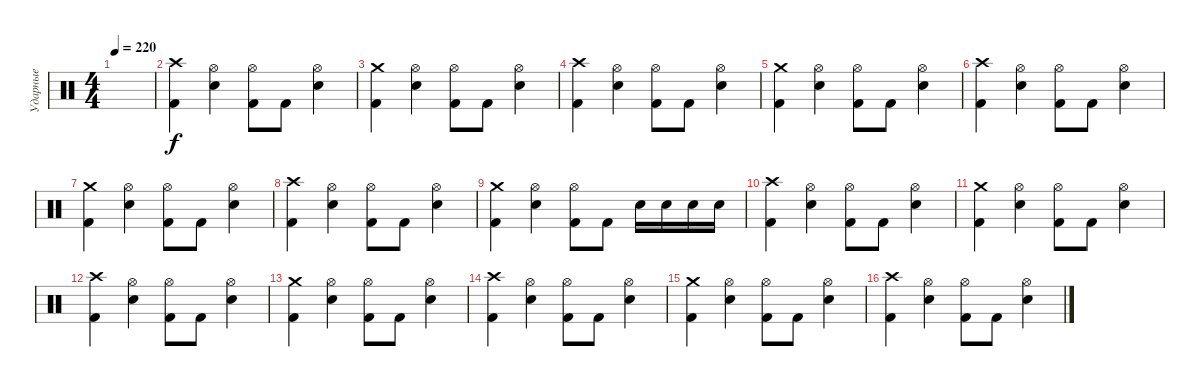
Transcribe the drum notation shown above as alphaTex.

\track ("Ударные" "Ударные") {instrument percussion}
\staff {score}
\articulation defaults
\ts (4 4)
\tempo 220
\clef neutral
\ks c
|
("Crash high (hit)" "Kick (hit) 2").4 ("Hi-Hat (open)" "Electric Snare (hit)").4 ("Hi-Hat (open)" "Kick (hit) 2").8 "Kick (hit) 2".8 ("Hi-Hat (open)" "Electric Snare (hit)").4 |
("Crash medium (hit)" "Kick (hit) 2").4 ("Hi-Hat (open)" "Electric Snare (hit)").4 ("Hi-Hat (open)" "Kick (hit) 2").8 "Kick (hit) 2".8 ("Hi-Hat (open)" "Electric Snare (hit)").4 |
("Crash high (hit)" "Kick (hit) 2").4 ("Hi-Hat (open)" "Electric Snare (hit)").4 ("Hi-Hat (open)" "Kick (hit) 2").8 "Kick (hit) 2".8 ("Hi-Hat (open)" "Electric Snare (hit)").4 |
("Crash medium (hit)" "Kick (hit) 2").4 ("Hi-Hat (open)" "Electric Snare (hit)").4 ("Hi-Hat (open)" "Kick (hit) 2").8 "Kick (hit) 2".8 ("Hi-Hat (open)" "Electric Snare (hit)").4 |
("Crash high (hit)" "Kick (hit) 2").4 ("Hi-Hat (open)" "Electric Snare (hit)").4 ("Hi-Hat (open)" "Kick (hit) 2").8 "Kick (hit) 2".8 ("Hi-Hat (open)" "Electric Snare (hit)").4 |
("Crash medium (hit)" "Kick (hit) 2").4 ("Hi-Hat (open)" "Electric Snare (hit)").4 ("Hi-Hat (open)" "Kick (hit) 2").8 "Kick (hit) 2".8 ("Hi-Hat (open)" "Electric Snare (hit)").4 |
("Crash high (hit)" "Kick (hit) 2").4 ("Hi-Hat (open)" "Electric Snare (hit)").4 ("Hi-Hat (open)" "Kick (hit) 2").8 "Kick (hit) 2".8 ("Hi-Hat (open)" "Electric Snare (hit)").4 |
("Crash medium (hit)" "Kick (hit) 2").4 ("Hi-Hat (open)" "Electric Snare (hit)").4 ("Hi-Hat (open)" "Kick (hit) 2").8 "Kick (hit) 2".8 "Electric Snare (hit)".16 "Electric Snare (hit)".16 "Electric Snare (hit)".16 "Electric Snare (hit)".16 |
("Crash high (hit)" "Kick (hit) 2").4 ("Hi-Hat (open)" "Electric Snare (hit)").4 ("Hi-Hat (open)" "Kick (hit) 2").8 "Kick (hit) 2".8 ("Hi-Hat (open)" "Electric Snare (hit)").4 |
("Crash medium (hit)" "Kick (hit) 2").4 ("Hi-Hat (open)" "Electric Snare (hit)").4 ("Hi-Hat (open)" "Kick (hit) 2").8 "Kick (hit) 2".8 ("Hi-Hat (open)" "Electric Snare (hit)").4 |
("Crash high (hit)" "Kick (hit) 2").4 ("Hi-Hat (open)" "Electric Snare (hit)").4 ("Hi-Hat (open)" "Kick (hit) 2").8 "Kick (hit) 2".8 ("Hi-Hat (open)" "Electric Snare (hit)").4 |
("Crash medium (hit)" "Kick (hit) 2").4 ("Hi-Hat (open)" "Electric Snare (hit)").4 ("Hi-Hat (open)" "Kick (hit) 2").8 "Kick (hit) 2".8 ("Hi-Hat (open)" "Electric Snare (hit)").4 |
("Crash high (hit)" "Kick (hit) 2").4 ("Hi-Hat (open)" "Electric Snare (hit)").4 ("Hi-Hat (open)" "Kick (hit) 2").8 "Kick (hit) 2".8 ("Hi-Hat (open)" "Electric Snare (hit)").4 |
("Crash medium (hit)" "Kick (hit) 2").4 ("Hi-Hat (open)" "Electric Snare (hit)").4 ("Hi-Hat (open)" "Kick (hit) 2").8 "Kick (hit) 2".8 ("Hi-Hat (open)" "Electric Snare (hit)").4 |
("Crash high (hit)" "Kick (hit) 2").4 ("Hi-Hat (open)" "Electric Snare (hit)").4 ("Hi-Hat (open)" "Kick (hit) 2").8 "Kick (hit) 2".8 ("Hi-Hat (open)" "Electric Snare (hit)").4
